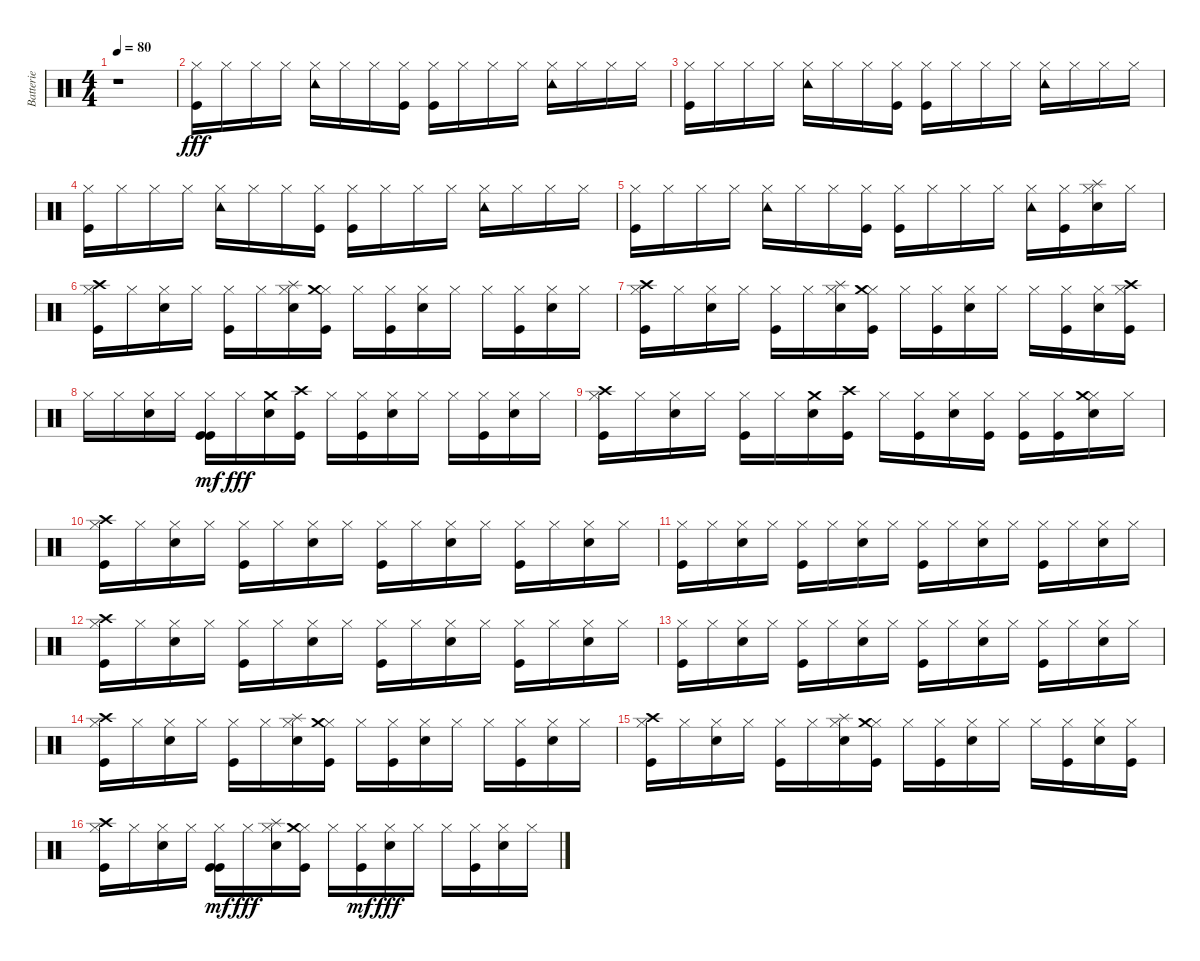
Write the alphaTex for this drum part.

\track ("Batterie" "Batterie") {instrument percussion}
\staff {score}
\articulation defaults
\ts (4 4)
\tempo 80
\clef neutral
\ks c
r.1{dy fff} |
("Kick (hit)" "Hi-Hat (closed)").16 "Hi-Hat (closed)".16 "Hi-Hat (closed)".16 "Hi-Hat (closed)".16 ("Hi-Hat (closed)" "Tambourine (hit)").16 "Hi-Hat (closed)".16 "Hi-Hat (closed)".16 ("Hi-Hat (closed)" "Kick (hit)").16 ("Kick (hit)" "Hi-Hat (closed)").16 "Hi-Hat (closed)".16 "Hi-Hat (closed)".16 "Hi-Hat (closed)".16 ("Hi-Hat (closed)" "Tambourine (hit)").16 "Hi-Hat (closed)".16 "Hi-Hat (closed)".16 "Hi-Hat (closed)".16 |
("Hi-Hat (closed)" "Kick (hit)").16 "Hi-Hat (closed)".16 "Hi-Hat (closed)".16 "Hi-Hat (closed)".16 ("Hi-Hat (closed)" "Tambourine (hit)").16 "Hi-Hat (closed)".16 "Hi-Hat (closed)".16 ("Hi-Hat (closed)" "Kick (hit)").16 ("Kick (hit)" "Hi-Hat (closed)").16 "Hi-Hat (closed)".16 "Hi-Hat (closed)".16 "Hi-Hat (closed)".16 ("Hi-Hat (closed)" "Tambourine (hit)").16 "Hi-Hat (closed)".16 "Hi-Hat (closed)".16 "Hi-Hat (closed)".16 |
("Hi-Hat (closed)" "Kick (hit)").16 "Hi-Hat (closed)".16 "Hi-Hat (closed)".16 "Hi-Hat (closed)".16 ("Hi-Hat (closed)" "Tambourine (hit)").16 "Hi-Hat (closed)".16 "Hi-Hat (closed)".16 ("Hi-Hat (closed)" "Kick (hit)").16 ("Kick (hit)" "Hi-Hat (closed)").16 "Hi-Hat (closed)".16 "Hi-Hat (closed)".16 "Hi-Hat (closed)".16 ("Hi-Hat (closed)" "Tambourine (hit)").16 "Hi-Hat (closed)".16 "Hi-Hat (closed)".16 "Hi-Hat (closed)".16 |
("Kick (hit)" "Hi-Hat (closed)").16 "Hi-Hat (closed)".16 "Hi-Hat (closed)".16 "Hi-Hat (closed)".16 ("Hi-Hat (closed)" "Tambourine (hit)").16 "Hi-Hat (closed)".16 "Hi-Hat (closed)".16 ("Hi-Hat (closed)" "Kick (hit)").16 ("Kick (hit)" "Hi-Hat (closed)").16 "Hi-Hat (closed)".16 "Hi-Hat (closed)".16 "Hi-Hat (closed)".16 ("Hi-Hat (closed)" "Tambourine (hit)").16 ("Hi-Hat (closed)" "Kick (hit)").16 ("Hi-Hat (closed)" "Metronome (bell)" "Splash (hit)").16 "Hi-Hat (closed)".16 |
("Kick (hit)" "Hi-Hat (closed)" "Crash high (hit)").16 "Hi-Hat (closed)".16 ("Hi-Hat (closed)" "Metronome (bell)").16 "Hi-Hat (closed)".16 ("Hi-Hat (closed)" "Kick (hit)").16 "Hi-Hat (closed)".16 ("Hi-Hat (closed)" "Metronome (bell)" "Splash (hit)").16 ("Hi-Hat (closed)" "Kick (hit)" "Crash medium (hit)").16 "Hi-Hat (closed)".16 ("Hi-Hat (closed)" "Kick (hit)").16 ("Hi-Hat (closed)" "Metronome (bell)").16 "Hi-Hat (closed)".16 "Hi-Hat (closed)".16 ("Hi-Hat (closed)" "Kick (hit)").16 ("Hi-Hat (closed)" "Metronome (bell)").16 "Hi-Hat (closed)".16 |
("Hi-Hat (closed)" "Kick (hit)" "Crash high (hit)").16 "Hi-Hat (closed)".16 ("Hi-Hat (closed)" "Metronome (bell)").16 "Hi-Hat (closed)".16 ("Hi-Hat (closed)" "Kick (hit)").16 "Hi-Hat (closed)".16 ("Hi-Hat (closed)" "Metronome (bell)" "Splash (hit)").16 ("Hi-Hat (closed)" "Kick (hit)" "Crash medium (hit)").16 "Hi-Hat (closed)".16 ("Hi-Hat (closed)" "Kick (hit)").16 ("Hi-Hat (closed)" "Metronome (bell)").16 "Hi-Hat (closed)".16 "Hi-Hat (closed)".16 ("Hi-Hat (closed)" "Kick (hit)").16 ("Hi-Hat (closed)" "Metronome (bell)").16 ("Hi-Hat (closed)" "Kick (hit)" "Crash high (hit)").16 |
"Hi-Hat (closed)".16 "Hi-Hat (closed)".16 ("Hi-Hat (closed)" "Metronome (bell)").16 "Hi-Hat (closed)".16 ("Kick (hit)" "Hi-Hat (closed)" "Kick (hit)").16{dy mf} "Hi-Hat (closed)".16{dy fff} ("Crash medium (hit)" "Metronome (bell)").16 ("Kick (hit)" "Crash high (hit)").16 "Hi-Hat (closed)".16 ("Kick (hit)" "Hi-Hat (closed)").16 ("Hi-Hat (closed)" "Metronome (bell)").16 "Hi-Hat (closed)".16 "Hi-Hat (closed)".16 ("Kick (hit)" "Hi-Hat (closed)").16 ("Hi-Hat (closed)" "Metronome (bell)").16 "Hi-Hat (closed)".16 |
("Hi-Hat (closed)" "Kick (hit)" "Crash high (hit)").16 "Hi-Hat (closed)".16 ("Hi-Hat (closed)" "Metronome (bell)").16 "Hi-Hat (closed)".16 ("Hi-Hat (closed)" "Kick (hit)").16 "Hi-Hat (closed)".16 ("Crash medium (hit)" "Metronome (bell)").16 ("Kick (hit)" "Crash high (hit)").16 "Hi-Hat (closed)".16 ("Hi-Hat (closed)" "Kick (hit)").16 ("Hi-Hat (closed)" "Metronome (bell)").16 ("Hi-Hat (closed)" "Kick (hit)").16 ("Hi-Hat (closed)" "Kick (hit)").16 ("Hi-Hat (closed)" "Kick (hit)").16 ("Hi-Hat (closed)" "Crash medium (hit)" "Metronome (bell)").16 "Hi-Hat (closed)".16 |
("Kick (hit)" "Hi-Hat (closed)" "Crash high (hit)").16 "Hi-Hat (closed)".16 ("Metronome (bell)" "Hi-Hat (closed)").16 "Hi-Hat (closed)".16 ("Hi-Hat (closed)" "Kick (hit)").16 "Hi-Hat (closed)".16 ("Hi-Hat (closed)" "Metronome (bell)").16 "Hi-Hat (closed)".16 ("Kick (hit)" "Hi-Hat (closed)").16 "Hi-Hat (closed)".16 ("Hi-Hat (closed)" "Metronome (bell)").16 "Hi-Hat (closed)".16 ("Kick (hit)" "Hi-Hat (closed)").16 "Hi-Hat (closed)".16 ("Hi-Hat (closed)" "Metronome (bell)").16 "Hi-Hat (closed)".16 |
("Hi-Hat (closed)" "Kick (hit)").16 "Hi-Hat (closed)".16 ("Hi-Hat (closed)" "Metronome (bell)").16 "Hi-Hat (closed)".16 ("Hi-Hat (closed)" "Kick (hit)").16 "Hi-Hat (closed)".16 ("Hi-Hat (closed)" "Metronome (bell)").16 "Hi-Hat (closed)".16 ("Hi-Hat (closed)" "Kick (hit)").16 "Hi-Hat (closed)".16 ("Hi-Hat (closed)" "Metronome (bell)").16 "Hi-Hat (closed)".16 ("Hi-Hat (closed)" "Kick (hit)").16 "Hi-Hat (closed)".16 ("Hi-Hat (closed)" "Metronome (bell)").16 "Hi-Hat (closed)".16 |
("Hi-Hat (closed)" "Kick (hit)" "Crash high (hit)").16 "Hi-Hat (closed)".16 ("Hi-Hat (closed)" "Metronome (bell)").16 "Hi-Hat (closed)".16 ("Hi-Hat (closed)" "Kick (hit)").16 "Hi-Hat (closed)".16 ("Hi-Hat (closed)" "Metronome (bell)").16 "Hi-Hat (closed)".16 ("Hi-Hat (closed)" "Kick (hit)").16 "Hi-Hat (closed)".16 ("Hi-Hat (closed)" "Metronome (bell)").16 "Hi-Hat (closed)".16 ("Hi-Hat (closed)" "Kick (hit)").16 "Hi-Hat (closed)".16 ("Hi-Hat (closed)" "Metronome (bell)").16 "Hi-Hat (closed)".16 |
("Hi-Hat (closed)" "Kick (hit)").16 "Hi-Hat (closed)".16 ("Hi-Hat (closed)" "Metronome (bell)").16 "Hi-Hat (closed)".16 ("Hi-Hat (closed)" "Kick (hit)").16 "Hi-Hat (closed)".16 ("Hi-Hat (closed)" "Metronome (bell)").16 "Hi-Hat (closed)".16 ("Hi-Hat (closed)" "Kick (hit)").16 "Hi-Hat (closed)".16 ("Hi-Hat (closed)" "Metronome (bell)").16 "Hi-Hat (closed)".16 ("Hi-Hat (closed)" "Kick (hit)").16 "Hi-Hat (closed)".16 ("Hi-Hat (closed)" "Metronome (bell)").16 "Hi-Hat (closed)".16 |
("Hi-Hat (closed)" "Kick (hit)" "Crash high (hit)").16 "Hi-Hat (closed)".16 ("Hi-Hat (closed)" "Metronome (bell)").16 "Hi-Hat (closed)".16 ("Hi-Hat (closed)" "Kick (hit)").16 "Hi-Hat (closed)".16 ("Hi-Hat (closed)" "Metronome (bell)" "Splash (hit)").16 ("Hi-Hat (closed)" "Kick (hit)" "Crash medium (hit)").16 "Hi-Hat (closed)".16 ("Hi-Hat (closed)" "Kick (hit)").16 ("Hi-Hat (closed)" "Metronome (bell)").16 "Hi-Hat (closed)".16 "Hi-Hat (closed)".16 ("Hi-Hat (closed)" "Kick (hit)").16 ("Hi-Hat (closed)" "Metronome (bell)").16 "Hi-Hat (closed)".16 |
("Hi-Hat (closed)" "Kick (hit)" "Crash high (hit)").16 "Hi-Hat (closed)".16 ("Hi-Hat (closed)" "Metronome (bell)").16 "Hi-Hat (closed)".16 ("Hi-Hat (closed)" "Kick (hit)").16 "Hi-Hat (closed)".16 ("Hi-Hat (closed)" "Metronome (bell)" "Splash (hit)").16 ("Hi-Hat (closed)" "Kick (hit)" "Crash medium (hit)").16 "Hi-Hat (closed)".16 ("Hi-Hat (closed)" "Kick (hit)").16 ("Hi-Hat (closed)" "Metronome (bell)").16 "Hi-Hat (closed)".16 "Hi-Hat (closed)".16 ("Hi-Hat (closed)" "Kick (hit)").16 ("Hi-Hat (closed)" "Metronome (bell)").16 ("Hi-Hat (closed)" "Kick (hit)").16 |
("Hi-Hat (closed)" "Kick (hit)" "Crash high (hit)").16 "Hi-Hat (closed)".16 ("Hi-Hat (closed)" "Metronome (bell)").16 "Hi-Hat (closed)".16 ("Hi-Hat (closed)" "Kick (hit)" "Kick (hit)").16{dy mf} "Hi-Hat (closed)".16{dy fff} ("Hi-Hat (closed)" "Metronome (bell)" "Splash (hit)").16 ("Hi-Hat (closed)" "Kick (hit)" "Crash medium (hit)").16 "Hi-Hat (closed)".16 ("Hi-Hat (closed)" "Kick (hit)").16{dy mf} ("Hi-Hat (closed)" "Metronome (bell)").16{dy fff} "Hi-Hat (closed)".16 "Hi-Hat (closed)".16 ("Hi-Hat (closed)" "Kick (hit)").16 ("Hi-Hat (closed)" "Metronome (bell)").16 "Hi-Hat (closed)".16
